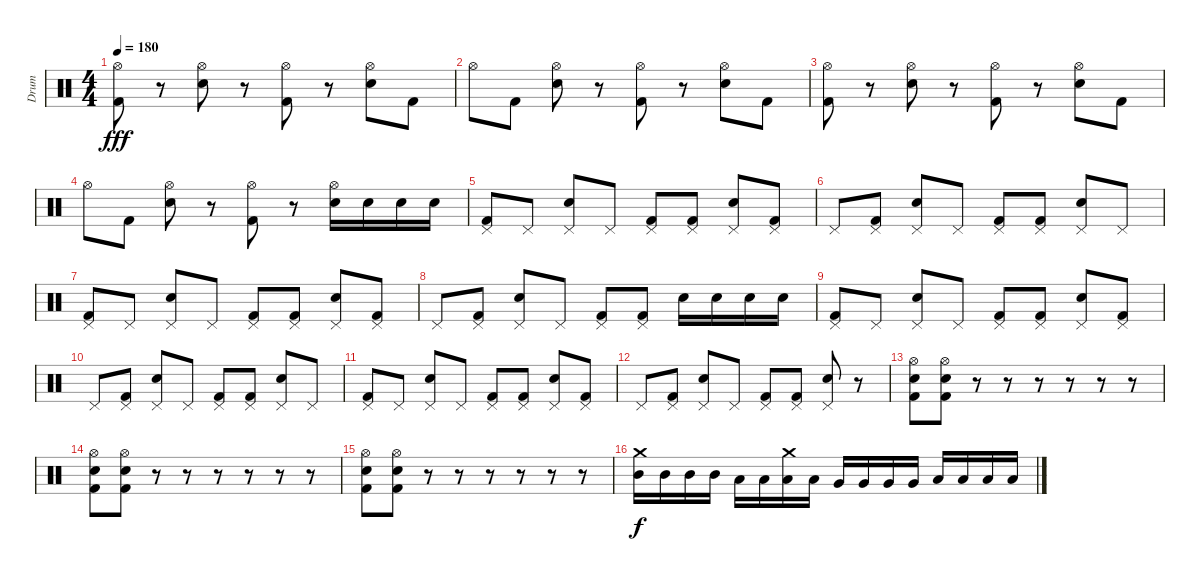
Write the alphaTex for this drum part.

\track ("Drum" "Drum") {instrument percussion}
\staff {score}
\articulation defaults
\ts (4 4)
\tempo 180
\clef neutral
\ks c
("Hi-Hat (open)" "Kick (hit) 2").8{dy fff} r.8 ("Hi-Hat (open)" "Electric Snare (hit)").8 r.8 ("Hi-Hat (open)" "Kick (hit) 2").8 r.8 ("Hi-Hat (open)" "Electric Snare (hit)").8 "Kick (hit) 2".8 |
"Hi-Hat (open)".8 "Kick (hit) 2".8 ("Hi-Hat (open)" "Electric Snare (hit)").8 r.8 ("Hi-Hat (open)" "Kick (hit) 2").8 r.8 ("Hi-Hat (open)" "Electric Snare (hit)").8 "Kick (hit) 2".8 |
("Hi-Hat (open)" "Kick (hit) 2").8 r.8 ("Hi-Hat (open)" "Electric Snare (hit)").8 r.8 ("Hi-Hat (open)" "Kick (hit) 2").8 r.8 ("Hi-Hat (open)" "Electric Snare (hit)").8 "Kick (hit) 2".8 |
"Hi-Hat (open)".8 "Kick (hit) 2".8 ("Hi-Hat (open)" "Electric Snare (hit)").8 r.8 ("Hi-Hat (open)" "Kick (hit) 2").8 r.8 ("Hi-Hat (open)" "Electric Snare (hit)").16 "Electric Snare (hit)".16 "Electric Snare (hit)".16 "Electric Snare (hit)".16 |
("Pedal Hi-Hat (hit)" "Kick (hit) 2").8 "Pedal Hi-Hat (hit)".8 ("Pedal Hi-Hat (hit)" "Electric Snare (hit)").8 "Pedal Hi-Hat (hit)".8 ("Pedal Hi-Hat (hit)" "Kick (hit) 2").8 ("Pedal Hi-Hat (hit)" "Kick (hit) 2").8 ("Pedal Hi-Hat (hit)" "Electric Snare (hit)").8 ("Pedal Hi-Hat (hit)" "Kick (hit) 2").8 |
"Pedal Hi-Hat (hit)".8 ("Pedal Hi-Hat (hit)" "Kick (hit) 2").8 ("Pedal Hi-Hat (hit)" "Electric Snare (hit)").8 "Pedal Hi-Hat (hit)".8 ("Pedal Hi-Hat (hit)" "Kick (hit) 2").8 ("Pedal Hi-Hat (hit)" "Kick (hit) 2").8 ("Pedal Hi-Hat (hit)" "Electric Snare (hit)").8 "Pedal Hi-Hat (hit)".8 |
("Pedal Hi-Hat (hit)" "Kick (hit) 2").8 "Pedal Hi-Hat (hit)".8 ("Pedal Hi-Hat (hit)" "Electric Snare (hit)").8 "Pedal Hi-Hat (hit)".8 ("Pedal Hi-Hat (hit)" "Kick (hit) 2").8 ("Pedal Hi-Hat (hit)" "Kick (hit) 2").8 ("Pedal Hi-Hat (hit)" "Electric Snare (hit)").8 ("Pedal Hi-Hat (hit)" "Kick (hit) 2").8 |
"Pedal Hi-Hat (hit)".8 ("Pedal Hi-Hat (hit)" "Kick (hit) 2").8 ("Pedal Hi-Hat (hit)" "Electric Snare (hit)").8 "Pedal Hi-Hat (hit)".8 ("Pedal Hi-Hat (hit)" "Kick (hit) 2").8 ("Pedal Hi-Hat (hit)" "Kick (hit) 2").8 "Electric Snare (hit)".16 "Electric Snare (hit)".16 "Electric Snare (hit)".16 "Electric Snare (hit)".16 |
("Pedal Hi-Hat (hit)" "Kick (hit) 2").8 "Pedal Hi-Hat (hit)".8 ("Pedal Hi-Hat (hit)" "Electric Snare (hit)").8 "Pedal Hi-Hat (hit)".8 ("Pedal Hi-Hat (hit)" "Kick (hit) 2").8 ("Pedal Hi-Hat (hit)" "Kick (hit) 2").8 ("Pedal Hi-Hat (hit)" "Electric Snare (hit)").8 ("Pedal Hi-Hat (hit)" "Kick (hit) 2").8 |
"Pedal Hi-Hat (hit)".8 ("Pedal Hi-Hat (hit)" "Kick (hit) 2").8 ("Pedal Hi-Hat (hit)" "Electric Snare (hit)").8 "Pedal Hi-Hat (hit)".8 ("Pedal Hi-Hat (hit)" "Kick (hit) 2").8 ("Pedal Hi-Hat (hit)" "Kick (hit) 2").8 ("Pedal Hi-Hat (hit)" "Electric Snare (hit)").8 "Pedal Hi-Hat (hit)".8 |
("Pedal Hi-Hat (hit)" "Kick (hit) 2").8 "Pedal Hi-Hat (hit)".8 ("Pedal Hi-Hat (hit)" "Electric Snare (hit)").8 "Pedal Hi-Hat (hit)".8 ("Pedal Hi-Hat (hit)" "Kick (hit) 2").8 ("Pedal Hi-Hat (hit)" "Kick (hit) 2").8 ("Pedal Hi-Hat (hit)" "Electric Snare (hit)").8 ("Pedal Hi-Hat (hit)" "Kick (hit) 2").8 |
"Pedal Hi-Hat (hit)".8 ("Pedal Hi-Hat (hit)" "Kick (hit) 2").8 ("Pedal Hi-Hat (hit)" "Electric Snare (hit)").8 "Pedal Hi-Hat (hit)".8 ("Pedal Hi-Hat (hit)" "Kick (hit) 2").8 ("Pedal Hi-Hat (hit)" "Kick (hit) 2").8 ("Pedal Hi-Hat (hit)" "Electric Snare (hit)").8 r.8 |
("Hi-Hat (open)" "Electric Snare (hit)" "Kick (hit) 2").8 ("Hi-Hat (open)" "Electric Snare (hit)" "Kick (hit) 2").8 r.8 r.8 r.8 r.8 r.8 r.8 |
("Hi-Hat (open)" "Electric Snare (hit)" "Kick (hit) 2").8 ("Hi-Hat (open)" "Electric Snare (hit)" "Kick (hit) 2").8 r.8 r.8 r.8 r.8 r.8 r.8 |
("Hi-Hat (open)" "Electric Snare (hit)" "Kick (hit) 2").8 ("Hi-Hat (open)" "Electric Snare (hit)" "Kick (hit) 2").8 r.8 r.8 r.8 r.8 r.8 r.8 |
("Crash medium (hit)" "Mid Tom (hit)").16{dy f} "Mid Tom (hit)".16 "Mid Tom (hit)".16 "Mid Tom (hit)".16 "Low Tom (hit)".16 "Low Tom (hit)".16 ("Crash medium (hit)" "Low Tom (hit)").16 "Low Tom (hit)".16 "Very Low Tom (hit)".16 "Very Low Tom (hit)".16 "Very Low Tom (hit)".16 "Very Low Tom (hit)".16 "Low Floor Tom (hit)".16 "Low Floor Tom (hit)".16 "Low Floor Tom (hit)".16 "Low Floor Tom (hit)".16
